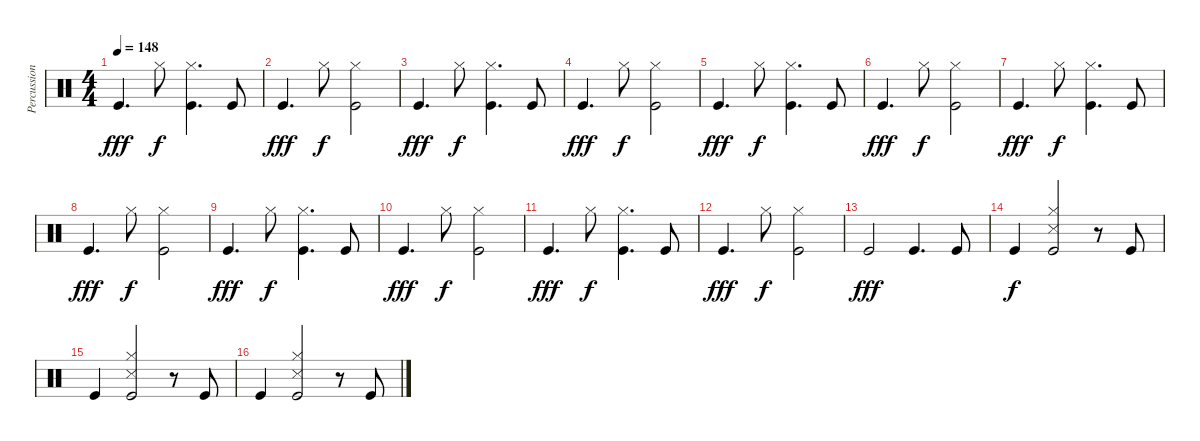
\track ("Percussion" "Percussion") {instrument percussion}
\staff {score}
\articulation defaults
\ts (4 4)
\tempo 148
\clef neutral
\ks c "Kick (hit)".4{d dy fff} "Hi-Hat (closed)".8{dy f}
("Hi-Hat (closed)" "Kick (hit)").4{d} "Kick (hit)".8 |
"Kick (hit)".4{d dy fff} "Hi-Hat (closed)".8{dy f} ("Kick (hit)" "Hi-Hat (closed)").2 |
"Kick (hit)".4{d dy fff} "Hi-Hat (closed)".8{dy f} ("Hi-Hat (closed)" "Kick (hit)").4{d} "Kick (hit)".8 |
"Kick (hit)".4{d dy fff} "Hi-Hat (closed)".8{dy f} ("Kick (hit)" "Hi-Hat (closed)").2 |
"Kick (hit)".4{d dy fff} "Hi-Hat (closed)".8{dy f} ("Hi-Hat (closed)" "Kick (hit)").4{d} "Kick (hit)".8 |
"Kick (hit)".4{d dy fff} "Hi-Hat (closed)".8{dy f} ("Kick (hit)" "Hi-Hat (closed)").2 |
"Kick (hit)".4{d dy fff} "Hi-Hat (closed)".8{dy f} ("Hi-Hat (closed)" "Kick (hit)").4{d} "Kick (hit)".8 |
"Kick (hit)".4{d dy fff} "Hi-Hat (closed)".8{dy f} ("Kick (hit)" "Hi-Hat (closed)").2 |
"Kick (hit)".4{d dy fff} "Hi-Hat (closed)".8{dy f} ("Hi-Hat (closed)" "Kick (hit)").4{d} "Kick (hit)".8 |
"Kick (hit)".4{d dy fff} "Hi-Hat (closed)".8{dy f} ("Kick (hit)" "Hi-Hat (closed)").2 |
"Kick (hit)".4{d dy fff} "Hi-Hat (closed)".8{dy f} ("Hi-Hat (closed)" "Kick (hit)").4{d} "Kick (hit)".8 |
"Kick (hit)".4{d dy fff} "Hi-Hat (closed)".8{dy f} ("Kick (hit)" "Hi-Hat (closed)").2 |
"Kick (hit)".2{dy fff} "Kick (hit)".4{d} "Kick (hit)".8 |
"Kick (hit)".4{dy f} ("Snare (side stick) 3" "Hi-Hat (closed)" "Kick (hit)").2 r.8 "Kick (hit)".8 |
"Kick (hit)".4 ("Snare (side stick) 3" "Hi-Hat (closed)" "Kick (hit)").2 r.8 "Kick (hit)".8 |
"Kick (hit)".4 ("Snare (side stick) 3" "Hi-Hat (closed)" "Kick (hit)").2 r.8 "Kick (hit)".8
